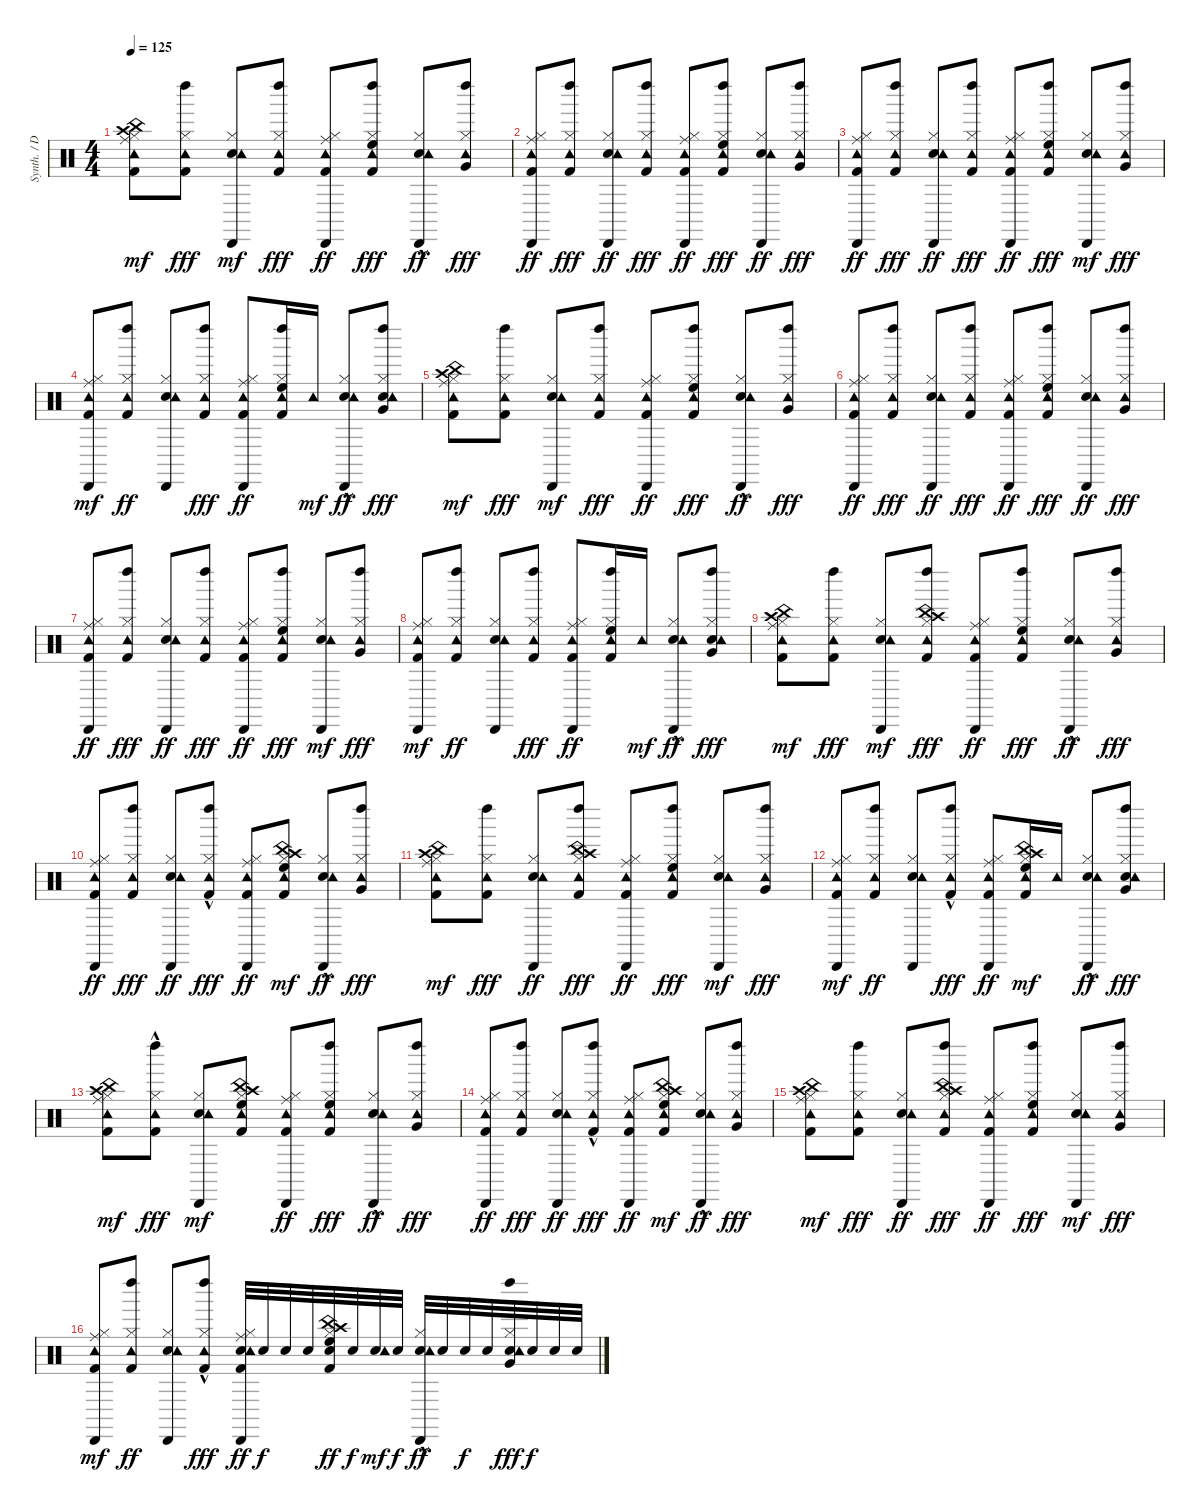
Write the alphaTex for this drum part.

\track ("Synth. / Drums" "Synth. / D") {instrument percussion}
\staff {score}
\articulation defaults
\ts (4 4)
\tempo 125
\clef neutral
\ks c
("Kick (hit) 2" "Hi-Hat (closed)" "Crash high (hit)" "Ride (middle)" "China (hit)" "Tambourine (hit)").8{dy mf} ("Kick (hit) 2" "Hi-Hat (closed)" "Tambourine (hit)" "Left Maraca (hit)").8{dy fff} ("Electric Snare (hit)" "Hi-Hat (closed)" "Tambourine (hit)" "Cabasa (hit)").8{dy mf} ("Kick (hit) 2" "Hi-Hat (closed)" "Tambourine (hit)" "Left Maraca (hit)").8{dy fff} ("Kick (hit) 2" "Hi-Hat (closed)" "Ride (middle)" "Tambourine (hit)" "Cabasa (hit)").8{dy ff} ("Kick (hit) 2" "Hi-Hat (closed)" "High Floor Tom (hit)" "Tambourine (hit)" "Left Maraca (hit)").8{dy fff} ("Electric Snare (hit)"{hac} "Hi-Hat (closed)" "Tambourine (hit)" "Cabasa (hit)").8{dy ff} ("Hi-Hat (closed)" "Very Low Tom (hit)" "Tambourine (hit)" "Left Maraca (hit)").8{dy fff} |
("Kick (hit) 2" "Hi-Hat (closed)" "Ride (middle)" "Tambourine (hit)" "Cabasa (hit)").8{dy ff} ("Kick (hit) 2" "Hi-Hat (closed)" "Tambourine (hit)" "Left Maraca (hit)").8{dy fff} ("Electric Snare (hit)" "Hi-Hat (closed)" "Tambourine (hit)" "Cabasa (hit)").8{dy ff} ("Kick (hit) 2" "Hi-Hat (closed)" "Tambourine (hit)" "Left Maraca (hit)").8{dy fff} ("Kick (hit) 2" "Hi-Hat (closed)" "Ride (middle)" "Tambourine (hit)" "Cabasa (hit)").8{dy ff} ("Kick (hit) 2" "Hi-Hat (closed)" "High Floor Tom (hit)" "Tambourine (hit)" "Left Maraca (hit)").8{dy fff} ("Electric Snare (hit)" "Hi-Hat (closed)" "Tambourine (hit)" "Cabasa (hit)").8{dy ff} ("Hi-Hat (closed)" "Very Low Tom (hit)" "Tambourine (hit)" "Left Maraca (hit)").8{dy fff} |
("Kick (hit) 2" "Hi-Hat (closed)" "Ride (middle)" "Tambourine (hit)" "Cabasa (hit)").8{dy ff} ("Kick (hit) 2" "Hi-Hat (closed)" "Tambourine (hit)" "Left Maraca (hit)").8{dy fff} ("Electric Snare (hit)" "Hi-Hat (closed)" "Tambourine (hit)" "Cabasa (hit)").8{dy ff} ("Kick (hit) 2" "Hi-Hat (closed)" "Tambourine (hit)" "Left Maraca (hit)").8{dy fff} ("Kick (hit) 2" "Hi-Hat (closed)" "Ride (middle)" "Tambourine (hit)" "Cabasa (hit)").8{dy ff} ("Kick (hit) 2" "Hi-Hat (closed)" "High Floor Tom (hit)" "Tambourine (hit)" "Left Maraca (hit)").8{dy fff} ("Electric Snare (hit)" "Hi-Hat (closed)" "Tambourine (hit)" "Cabasa (hit)").8{dy mf} ("Hi-Hat (closed)" "Very Low Tom (hit)" "Tambourine (hit)" "Left Maraca (hit)").8{dy fff} |
("Kick (hit) 2" "Hi-Hat (closed)" "Ride (middle)" "Tambourine (hit)" "Cabasa (hit)").8{dy mf} ("Kick (hit) 2" "Hi-Hat (closed)" "Tambourine (hit)" "Left Maraca (hit)").8{dy ff} ("Electric Snare (hit)" "Hi-Hat (closed)" "Tambourine (hit)" "Cabasa (hit)").8 ("Kick (hit) 2" "Hi-Hat (closed)" "Tambourine (hit)" "Left Maraca (hit)").8{dy fff} ("Kick (hit) 2" "Hi-Hat (closed)" "Ride (middle)" "Tambourine (hit)" "Cabasa (hit)").8{dy ff} ("Kick (hit) 2" "Hi-Hat (closed)" "High Floor Tom (hit)" "Tambourine (hit)" "Left Maraca (hit)").16 "Tambourine (hit)".16{dy mf} ("Electric Snare (hit)" "Hi-Hat (closed)" "Tambourine (hit)" "Cabasa (hit)"{hac}).8{dy ff} ("Electric Snare (hit)" "Hi-Hat (closed)" "Very Low Tom (hit)" "Tambourine (hit)" "Left Maraca (hit)").8{dy fff} |
("Kick (hit) 2" "Hi-Hat (closed)" "Crash high (hit)" "Ride (middle)" "China (hit)" "Tambourine (hit)").8{dy mf} ("Kick (hit) 2" "Hi-Hat (closed)" "Tambourine (hit)" "Left Maraca (hit)").8{dy fff} ("Electric Snare (hit)" "Hi-Hat (closed)" "Tambourine (hit)" "Cabasa (hit)").8{dy mf} ("Kick (hit) 2" "Hi-Hat (closed)" "Tambourine (hit)" "Left Maraca (hit)").8{dy fff} ("Kick (hit) 2" "Hi-Hat (closed)" "Ride (middle)" "Tambourine (hit)" "Cabasa (hit)").8{dy ff} ("Kick (hit) 2" "Hi-Hat (closed)" "High Floor Tom (hit)" "Tambourine (hit)" "Left Maraca (hit)").8{dy fff} ("Electric Snare (hit)"{hac} "Hi-Hat (closed)" "Tambourine (hit)" "Cabasa (hit)").8{dy ff} ("Hi-Hat (closed)" "Very Low Tom (hit)" "Tambourine (hit)" "Left Maraca (hit)").8{dy fff} |
("Kick (hit) 2" "Hi-Hat (closed)" "Ride (middle)" "Tambourine (hit)" "Cabasa (hit)").8{dy ff} ("Kick (hit) 2" "Hi-Hat (closed)" "Tambourine (hit)" "Left Maraca (hit)").8{dy fff} ("Electric Snare (hit)" "Hi-Hat (closed)" "Tambourine (hit)" "Cabasa (hit)").8{dy ff} ("Kick (hit) 2" "Hi-Hat (closed)" "Tambourine (hit)" "Left Maraca (hit)").8{dy fff} ("Kick (hit) 2" "Hi-Hat (closed)" "Ride (middle)" "Tambourine (hit)" "Cabasa (hit)").8{dy ff} ("Kick (hit) 2" "Hi-Hat (closed)" "High Floor Tom (hit)" "Tambourine (hit)" "Left Maraca (hit)").8{dy fff} ("Electric Snare (hit)" "Hi-Hat (closed)" "Tambourine (hit)" "Cabasa (hit)").8{dy ff} ("Hi-Hat (closed)" "Very Low Tom (hit)" "Tambourine (hit)" "Left Maraca (hit)").8{dy fff} |
("Kick (hit) 2" "Hi-Hat (closed)" "Ride (middle)" "Tambourine (hit)" "Cabasa (hit)").8{dy ff} ("Kick (hit) 2" "Hi-Hat (closed)" "Tambourine (hit)" "Left Maraca (hit)").8{dy fff} ("Electric Snare (hit)" "Hi-Hat (closed)" "Tambourine (hit)" "Cabasa (hit)").8{dy ff} ("Kick (hit) 2" "Hi-Hat (closed)" "Tambourine (hit)" "Left Maraca (hit)").8{dy fff} ("Kick (hit) 2" "Hi-Hat (closed)" "Ride (middle)" "Tambourine (hit)" "Cabasa (hit)").8{dy ff} ("Kick (hit) 2" "Hi-Hat (closed)" "High Floor Tom (hit)" "Tambourine (hit)" "Left Maraca (hit)").8{dy fff} ("Electric Snare (hit)" "Hi-Hat (closed)" "Tambourine (hit)" "Cabasa (hit)").8{dy mf} ("Hi-Hat (closed)" "Very Low Tom (hit)" "Tambourine (hit)" "Left Maraca (hit)").8{dy fff} |
("Kick (hit) 2" "Hi-Hat (closed)" "Ride (middle)" "Tambourine (hit)" "Cabasa (hit)").8{dy mf} ("Kick (hit) 2" "Hi-Hat (closed)" "Tambourine (hit)" "Left Maraca (hit)").8{dy ff} ("Electric Snare (hit)" "Hi-Hat (closed)" "Tambourine (hit)" "Cabasa (hit)").8 ("Kick (hit) 2" "Hi-Hat (closed)" "Tambourine (hit)" "Left Maraca (hit)").8{dy fff} ("Kick (hit) 2" "Hi-Hat (closed)" "Ride (middle)" "Tambourine (hit)" "Cabasa (hit)").8{dy ff} ("Kick (hit) 2" "Hi-Hat (closed)" "High Floor Tom (hit)" "Tambourine (hit)" "Left Maraca (hit)").16 "Tambourine (hit)".16{dy mf} ("Electric Snare (hit)" "Hi-Hat (closed)" "Tambourine (hit)" "Cabasa (hit)"{hac}).8{dy ff} ("Electric Snare (hit)" "Hi-Hat (closed)" "Very Low Tom (hit)" "Tambourine (hit)" "Left Maraca (hit)").8{dy fff} |
("Kick (hit) 2" "Hi-Hat (closed)" "Crash high (hit)" "Ride (middle)" "China (hit)" "Tambourine (hit)").8{dy mf} ("Kick (hit) 2" "Hi-Hat (closed)" "Tambourine (hit)" "Left Maraca (hit)").8{dy fff} ("Electric Snare (hit)" "Hi-Hat (closed)" "Tambourine (hit)" "Cabasa (hit)").8{dy mf} ("Kick (hit) 2" "Hi-Hat (closed)" "Crash high (hit)" "China (hit)" "Tambourine (hit)" "Left Maraca (hit)").8{dy fff} ("Kick (hit) 2" "Hi-Hat (closed)" "Ride (middle)" "Tambourine (hit)" "Cabasa (hit)").8{dy ff} ("Kick (hit) 2" "Hi-Hat (closed)" "High Floor Tom (hit)" "Tambourine (hit)" "Left Maraca (hit)").8{dy fff} ("Electric Snare (hit)"{hac} "Hi-Hat (closed)" "Tambourine (hit)" "Cabasa (hit)").8{dy ff} ("Hi-Hat (closed)" "Very Low Tom (hit)" "Tambourine (hit)" "Left Maraca (hit)").8{dy fff} |
("Kick (hit) 2" "Hi-Hat (closed)" "Ride (middle)" "Tambourine (hit)" "Cabasa (hit)").8{dy ff} ("Kick (hit) 2" "Hi-Hat (closed)" "Tambourine (hit)" "Left Maraca (hit)").8{dy fff} ("Electric Snare (hit)" "Hi-Hat (closed)" "Tambourine (hit)" "Cabasa (hit)").8{dy ff} ("Kick (hit) 2" "Hi-Hat (closed)" "Tambourine (hit)" "Left Maraca (hit)"{hac}).8{dy fff} ("Kick (hit) 2" "Hi-Hat (closed)" "Ride (middle)" "Tambourine (hit)" "Cabasa (hit)").8{dy ff} ("Kick (hit) 2" "Hi-Hat (closed)" "High Floor Tom (hit)" "Crash high (hit)" "China (hit)" "Tambourine (hit)").8{dy mf} ("Electric Snare (hit)" "Hi-Hat (closed)" "Tambourine (hit)" "Cabasa (hit)"{hac}).8{dy ff} ("Hi-Hat (closed)" "Very Low Tom (hit)" "Tambourine (hit)" "Left Maraca (hit)").8{dy fff} |
("Kick (hit) 2" "Hi-Hat (closed)" "Crash high (hit)" "Ride (middle)" "China (hit)" "Tambourine (hit)").8{dy mf} ("Kick (hit) 2" "Hi-Hat (closed)" "Tambourine (hit)" "Left Maraca (hit)").8{dy fff} ("Electric Snare (hit)" "Hi-Hat (closed)" "Tambourine (hit)" "Cabasa (hit)").8{dy ff} ("Kick (hit) 2" "Hi-Hat (closed)" "Crash high (hit)" "China (hit)" "Tambourine (hit)" "Left Maraca (hit)").8{dy fff} ("Kick (hit) 2" "Hi-Hat (closed)" "Ride (middle)" "Tambourine (hit)" "Cabasa (hit)").8{dy ff} ("Kick (hit) 2" "Hi-Hat (closed)" "High Floor Tom (hit)" "Tambourine (hit)" "Left Maraca (hit)").8{dy fff} ("Electric Snare (hit)" "Hi-Hat (closed)" "Tambourine (hit)" "Cabasa (hit)").8{dy mf} ("Hi-Hat (closed)" "Very Low Tom (hit)" "Tambourine (hit)" "Left Maraca (hit)").8{dy fff} |
("Kick (hit) 2" "Hi-Hat (closed)" "Ride (middle)" "Tambourine (hit)" "Cabasa (hit)").8{dy mf} ("Kick (hit) 2" "Hi-Hat (closed)" "Tambourine (hit)" "Left Maraca (hit)").8{dy ff} ("Electric Snare (hit)" "Hi-Hat (closed)" "Tambourine (hit)" "Cabasa (hit)").8 ("Kick (hit) 2" "Hi-Hat (closed)" "Tambourine (hit)" "Left Maraca (hit)"{hac}).8{dy fff} ("Kick (hit) 2" "Hi-Hat (closed)" "Ride (middle)" "Tambourine (hit)" "Cabasa (hit)").8{dy ff} ("Kick (hit) 2" "Hi-Hat (closed)" "High Floor Tom (hit)" "Crash high (hit)" "China (hit)" "Tambourine (hit)").16{dy mf} "Tambourine (hit)".16 ("Electric Snare (hit)" "Hi-Hat (closed)" "Tambourine (hit)" "Cabasa (hit)"{hac}).8{dy ff} ("Electric Snare (hit)" "Hi-Hat (closed)" "Very Low Tom (hit)" "Tambourine (hit)" "Left Maraca (hit)").8{dy fff} |
("Kick (hit) 2" "Hi-Hat (closed)" "Crash high (hit)" "Ride (middle)" "China (hit)" "Tambourine (hit)").8{dy mf} ("Kick (hit) 2" "Hi-Hat (closed)" "Tambourine (hit)" "Left Maraca (hit)"{hac}).8{dy fff} ("Electric Snare (hit)" "Hi-Hat (closed)" "Tambourine (hit)" "Cabasa (hit)").8{dy mf} ("Kick (hit) 2" "Hi-Hat (closed)" "Crash high (hit)" "High Floor Tom (hit)" "China (hit)" "Tambourine (hit)").8 ("Kick (hit) 2" "Hi-Hat (closed)" "Ride (middle)" "Tambourine (hit)" "Cabasa (hit)").8{dy ff} ("Kick (hit) 2" "Hi-Hat (closed)" "High Floor Tom (hit)" "Tambourine (hit)" "Left Maraca (hit)").8{dy fff} ("Electric Snare (hit)"{hac} "Hi-Hat (closed)" "Tambourine (hit)" "Cabasa (hit)").8{dy ff} ("Hi-Hat (closed)" "Very Low Tom (hit)" "Tambourine (hit)" "Left Maraca (hit)").8{dy fff} |
("Kick (hit) 2" "Hi-Hat (closed)" "Ride (middle)" "Tambourine (hit)" "Cabasa (hit)").8{dy ff} ("Kick (hit) 2" "Hi-Hat (closed)" "Tambourine (hit)" "Left Maraca (hit)").8{dy fff} ("Electric Snare (hit)" "Hi-Hat (closed)" "Tambourine (hit)" "Cabasa (hit)").8{dy ff} ("Kick (hit) 2" "Hi-Hat (closed)" "Tambourine (hit)" "Left Maraca (hit)"{hac}).8{dy fff} ("Kick (hit) 2" "Hi-Hat (closed)" "Ride (middle)" "Tambourine (hit)" "Cabasa (hit)").8{dy ff} ("Kick (hit) 2" "Hi-Hat (closed)" "High Floor Tom (hit)" "Crash high (hit)" "China (hit)" "Tambourine (hit)").8{dy mf} ("Electric Snare (hit)" "Hi-Hat (closed)" "Tambourine (hit)" "Cabasa (hit)"{hac}).8{dy ff} ("Hi-Hat (closed)" "Very Low Tom (hit)" "Tambourine (hit)" "Left Maraca (hit)").8{dy fff} |
("Kick (hit) 2" "Hi-Hat (closed)" "Crash high (hit)" "Ride (middle)" "China (hit)" "Tambourine (hit)").8{dy mf} ("Kick (hit) 2" "Hi-Hat (closed)" "Tambourine (hit)" "Left Maraca (hit)").8{dy fff} ("Electric Snare (hit)" "Hi-Hat (closed)" "Tambourine (hit)" "Cabasa (hit)").8{dy ff} ("Kick (hit) 2" "Hi-Hat (closed)" "Crash high (hit)" "China (hit)" "Tambourine (hit)" "Left Maraca (hit)").8{dy fff} ("Kick (hit) 2" "Hi-Hat (closed)" "Ride (middle)" "Tambourine (hit)" "Cabasa (hit)").8{dy ff} ("Kick (hit) 2" "Hi-Hat (closed)" "High Floor Tom (hit)" "Tambourine (hit)" "Left Maraca (hit)").8{dy fff} ("Electric Snare (hit)" "Hi-Hat (closed)" "Tambourine (hit)" "Cabasa (hit)").8{dy mf} ("Hi-Hat (closed)" "Very Low Tom (hit)" "Tambourine (hit)" "Left Maraca (hit)").8{dy fff} |
("Kick (hit) 2" "Hi-Hat (closed)" "Ride (middle)" "Tambourine (hit)" "Cabasa (hit)").8{dy mf} ("Kick (hit) 2" "Hi-Hat (closed)" "Tambourine (hit)" "Left Maraca (hit)").8{dy ff} ("Electric Snare (hit)" "Hi-Hat (closed)" "Tambourine (hit)" "Cabasa (hit)").8 ("Kick (hit) 2" "Hi-Hat (closed)" "Tambourine (hit)" "Left Maraca (hit)"{hac}).8{dy fff} ("Kick (hit) 2" "Electric Snare (hit)" "Hi-Hat (closed)" "Ride (middle)" "Tambourine (hit)" "Cabasa (hit)").32{dy ff} "Electric Snare (hit)".32{dy f} "Electric Snare (hit)".32 "Electric Snare (hit)".32 ("Kick (hit) 2" "Electric Snare (hit)" "Hi-Hat (closed)" "High Floor Tom (hit)" "Crash high (hit)" "China (hit)").32{dy ff} "Electric Snare (hit)".32{dy f} ("Electric Snare (hit)" "Tambourine (hit)").32{dy mf} "Electric Snare (hit)".32{dy f} ("Electric Snare (hit)" "Hi-Hat (closed)" "Tambourine (hit)" "Cabasa (hit)"{hac}).32{dy ff} "Electric Snare (hit)".32 "Electric Snare (hit)".32{dy f} "Electric Snare (hit)".32 ("Electric Snare (hit)" "Hi-Hat (closed)" "Very Low Tom (hit)" "Tambourine (hit)" "Left Maraca (hit)").32{dy fff} "Electric Snare (hit)".32{dy f} "Electric Snare (hit)".32 "Electric Snare (hit)".32
